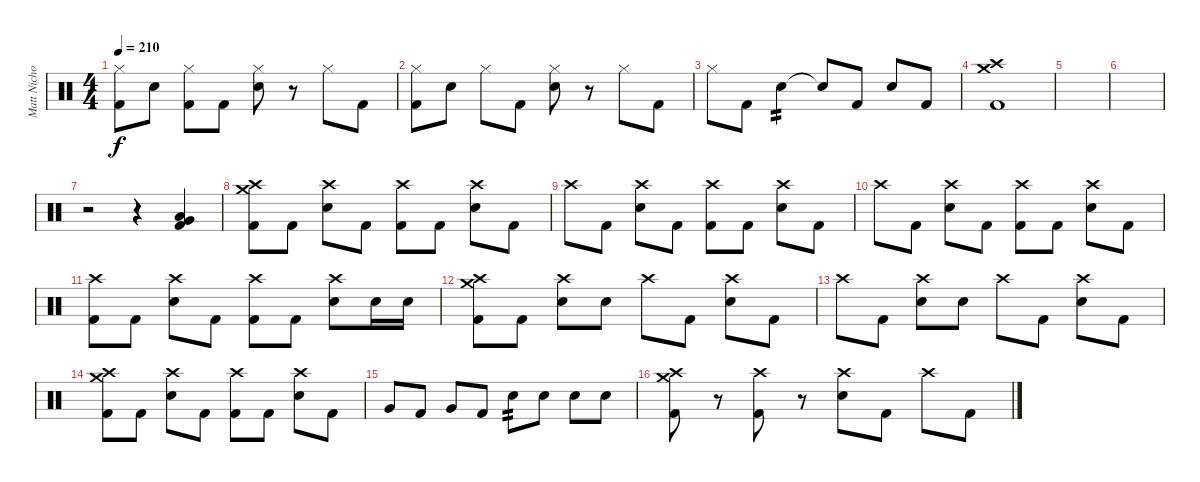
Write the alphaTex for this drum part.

\track ("Matt Nichols" "Matt Nicho") {instrument percussion}
\staff {score}
\articulation defaults
\ts (4 4)
\tempo 210
\clef neutral
\ks c
("Hi-Hat (closed)" "Kick (hit) 2").8{dy f} "Electric Snare (hit)".8 ("Hi-Hat (closed)" "Kick (hit) 2").8 "Kick (hit) 2".8 ("Hi-Hat (closed)" "Electric Snare (hit)").8 r.8 "Hi-Hat (closed)".8 "Kick (hit) 2".8 |
("Hi-Hat (closed)" "Kick (hit) 2").8 "Electric Snare (hit)".8 "Hi-Hat (closed)".8 "Kick (hit) 2".8 ("Hi-Hat (closed)" "Electric Snare (hit)").8 r.8 "Hi-Hat (closed)".8 "Kick (hit) 2".8 |
"Hi-Hat (closed)".8 "Kick (hit) 2".8 "Electric Snare (hit)".4{tp 2} "Snare (hit)"{t}.8 "Kick (hit) 2".8 "Electric Snare (hit)".8 "Kick (hit) 2".8 |
("Crash medium (hit)" "Crash high (hit)" "Kick (hit) 2").1 |
|
|
r.2 r.4 ("Low Floor Tom (hit)" "Very Low Tom (hit)" "Kick (hit) 2").4 |
("Crash high (hit)" "Crash medium (hit)" "Kick (hit) 2").8 "Kick (hit) 2".8 ("Crash high (hit)" "Snare (hit) 2").8 "Kick (hit) 2".8 ("Crash high (hit)" "Kick (hit) 2").8 "Kick (hit) 2".8 ("Crash high (hit)" "Snare (hit) 2").8 "Kick (hit) 2".8 |
"Crash high (hit)".8 "Kick (hit) 2".8 ("Crash high (hit)" "Snare (hit) 2").8 "Kick (hit) 2".8 ("Crash high (hit)" "Kick (hit) 2").8 "Kick (hit) 2".8 ("Crash high (hit)" "Snare (hit) 2").8 "Kick (hit) 2".8 |
"Crash high (hit)".8 "Kick (hit) 2".8 ("Crash high (hit)" "Snare (hit) 2").8 "Kick (hit) 2".8 ("Crash high (hit)" "Kick (hit) 2").8 "Kick (hit) 2".8 ("Crash high (hit)" "Snare (hit) 2").8 "Kick (hit) 2".8 |
("Crash high (hit)" "Kick (hit) 2").8 "Kick (hit) 2".8 ("Crash high (hit)" "Snare (hit) 2").8 "Kick (hit) 2".8 ("Crash high (hit)" "Kick (hit) 2").8 "Kick (hit) 2".8 ("Crash high (hit)" "Snare (hit) 2").8 "Snare (hit) 2".16 "Snare (hit) 2".16 |
("Crash high (hit)" "Crash medium (hit)" "Kick (hit) 2").8 "Kick (hit) 2".8 ("Crash high (hit)" "Snare (hit) 2").8 "Snare (hit) 2".8 "Crash high (hit)".8 "Kick (hit) 2".8 ("Crash high (hit)" "Snare (hit) 2").8 "Kick (hit) 2".8 |
"Crash high (hit)".8 "Kick (hit) 2".8 ("Crash high (hit)" "Snare (hit) 2").8 "Snare (hit) 2".8 "Crash high (hit)".8 "Kick (hit) 2".8 ("Crash high (hit)" "Snare (hit) 2").8 "Kick (hit) 2".8 |
("Crash high (hit)" "Crash medium (hit)" "Kick (hit) 2").8 "Kick (hit) 2".8 ("Crash high (hit)" "Snare (hit) 2").8 "Kick (hit) 2".8 ("Crash high (hit)" "Kick (hit) 2").8 "Kick (hit) 2".8 ("Crash high (hit)" "Snare (hit) 2").8 "Kick (hit) 2".8 |
"Very Low Tom (hit)".8 "Kick (hit) 2".8 "Very Low Tom (hit)".8 "Kick (hit) 2".8 "Electric Snare (hit)".8{tp 2} "Electric Snare (hit)".8 "Electric Snare (hit)".8 "Electric Snare (hit)".8 |
("Crash high (hit)" "Crash medium (hit)" "Kick (hit) 2").8 r.8 ("Crash high (hit)" "Kick (hit) 2").8 r.8 ("Crash high (hit)" "Snare (hit) 2").8 "Kick (hit) 2".8 "Crash high (hit)".8 "Kick (hit) 2".8
